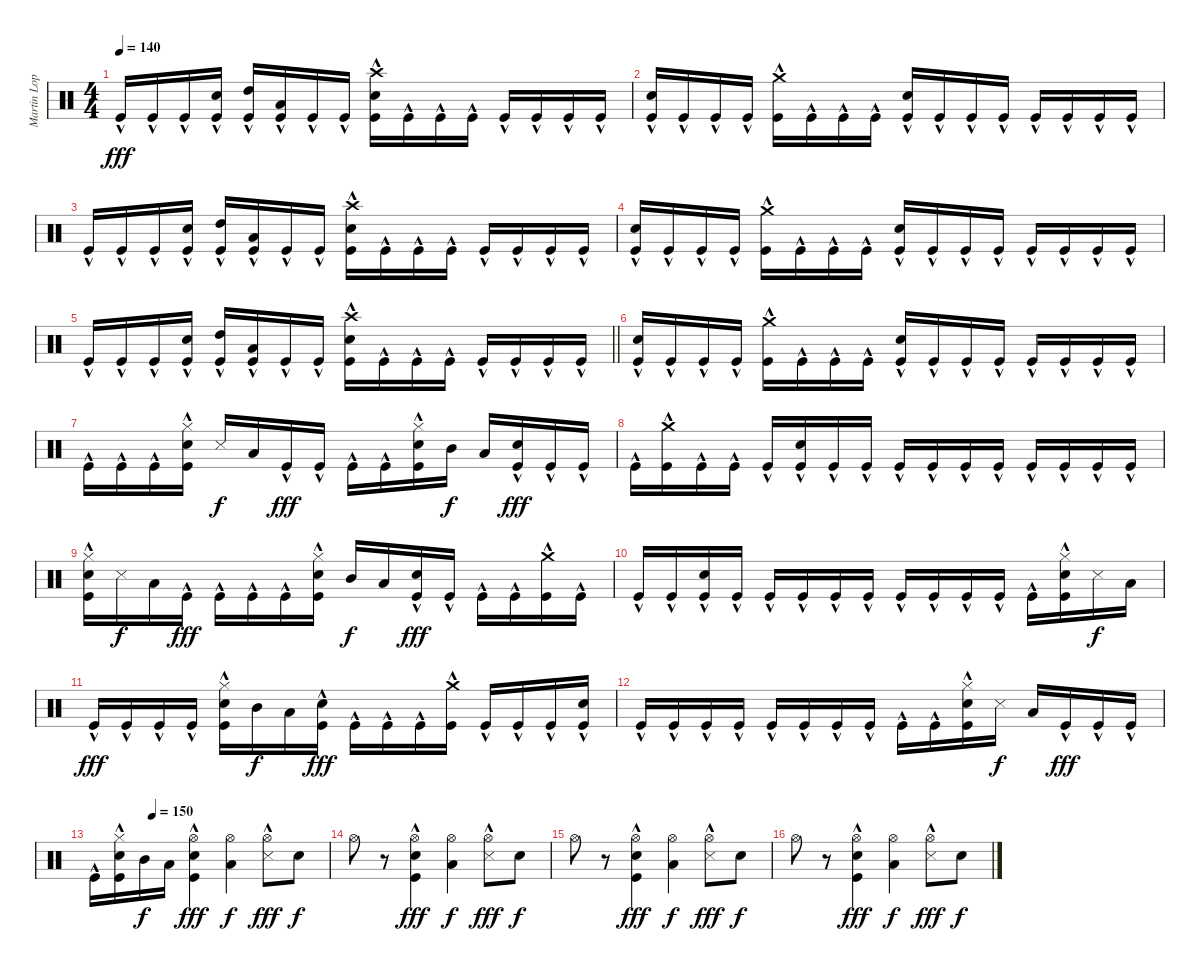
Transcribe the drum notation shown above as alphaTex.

\track ("Martin Lopez" "Martin Lop") {instrument percussion}
\staff {score}
\articulation defaults
\ts (4 4)
\tempo 140
\clef neutral
\ks c "Kick (hit)"{hac}.16{dy fff} "Kick (hit)"{hac}.16 "Kick (hit)"{hac}.16
("Electric Snare (hit)" "Kick (hit)"{hac}).16 ("High Tom (hit)" "Kick (hit)"{hac}).16 ("Low Tom (hit)" "Kick (hit)"{hac}).16 "Kick (hit)"{hac}.16 "Kick (hit)"{hac}.16 ("Crash high (hit)" "Electric Snare (hit)" "Kick (hit)"{hac}).16 "Kick (hit)"{hac}.16 "Kick (hit)"{hac}.16 "Kick (hit)"{hac}.16 "Kick (hit)"{hac}.16 "Kick (hit)"{hac}.16 "Kick (hit)"{hac}.16 "Kick (hit)"{hac}.16 |
("Electric Snare (hit)" "Kick (hit)"{hac}).16 "Kick (hit)"{hac}.16 "Kick (hit)"{hac}.16 "Kick (hit)"{hac}.16 ("Crash medium (hit)" "Kick (hit)"{hac}).16 "Kick (hit)"{hac}.16 "Kick (hit)"{hac}.16 "Kick (hit)"{hac}.16 ("Electric Snare (hit)" "Kick (hit)"{hac}).16 "Kick (hit)"{hac}.16 "Kick (hit)"{hac}.16 "Kick (hit)"{hac}.16 "Kick (hit)"{hac}.16 "Kick (hit)"{hac}.16 "Kick (hit)"{hac}.16 "Kick (hit)"{hac}.16 |
"Kick (hit)"{hac}.16 "Kick (hit)"{hac}.16 "Kick (hit)"{hac}.16 ("Electric Snare (hit)" "Kick (hit)"{hac}).16 ("High Tom (hit)" "Kick (hit)"{hac}).16 ("Low Tom (hit)" "Kick (hit)"{hac}).16 "Kick (hit)"{hac}.16 "Kick (hit)"{hac}.16 ("Crash high (hit)" "Electric Snare (hit)" "Kick (hit)"{hac}).16 "Kick (hit)"{hac}.16 "Kick (hit)"{hac}.16 "Kick (hit)"{hac}.16 "Kick (hit)"{hac}.16 "Kick (hit)"{hac}.16 "Kick (hit)"{hac}.16 "Kick (hit)"{hac}.16 |
("Electric Snare (hit)" "Kick (hit)"{hac}).16 "Kick (hit)"{hac}.16 "Kick (hit)"{hac}.16 "Kick (hit)"{hac}.16 ("Crash medium (hit)" "Kick (hit)"{hac}).16 "Kick (hit)"{hac}.16 "Kick (hit)"{hac}.16 "Kick (hit)"{hac}.16 ("Electric Snare (hit)" "Kick (hit)"{hac}).16 "Kick (hit)"{hac}.16 "Kick (hit)"{hac}.16 "Kick (hit)"{hac}.16 "Kick (hit)"{hac}.16 "Kick (hit)"{hac}.16 "Kick (hit)"{hac}.16 "Kick (hit)"{hac}.16 |
\barLineRight lightlight "Kick (hit)"{hac}.16 "Kick (hit)"{hac}.16 "Kick (hit)"{hac}.16
("Electric Snare (hit)" "Kick (hit)"{hac}).16 ("High Tom (hit)" "Kick (hit)"{hac}).16 ("Low Tom (hit)" "Kick (hit)"{hac}).16 "Kick (hit)"{hac}.16 "Kick (hit)"{hac}.16 ("Crash high (hit)" "Electric Snare (hit)" "Kick (hit)"{hac}).16 "Kick (hit)"{hac}.16 "Kick (hit)"{hac}.16 "Kick (hit)"{hac}.16 "Kick (hit)"{hac}.16 "Kick (hit)"{hac}.16 "Kick (hit)"{hac}.16 "Kick (hit)"{hac}.16 |
\section ("" "")
("Electric Snare (hit)" "Kick (hit)"{hac}).16 "Kick (hit)"{hac}.16 "Kick (hit)"{hac}.16 "Kick (hit)"{hac}.16 ("Crash medium (hit)" "Kick (hit)"{hac}).16 "Kick (hit)"{hac}.16 "Kick (hit)"{hac}.16 "Kick (hit)"{hac}.16 ("Electric Snare (hit)" "Kick (hit)"{hac}).16 "Kick (hit)"{hac}.16 "Kick (hit)"{hac}.16 "Kick (hit)"{hac}.16 "Kick (hit)"{hac}.16 "Kick (hit)"{hac}.16 "Kick (hit)"{hac}.16 "Kick (hit)"{hac}.16 |
"Kick (hit)"{hac}.16 "Kick (hit)"{hac}.16 "Kick (hit)"{hac}.16 ("Hi-Hat (closed)" "Electric Snare (hit)" "Kick (hit)"{hac}).16 "Snare (side stick) 3".16{dy f} "Low Tom (hit)".16 "Kick (hit)"{hac}.16{dy fff} "Kick (hit)"{hac}.16 "Kick (hit)"{hac}.16 "Kick (hit)"{hac}.16 ("Hi-Hat (closed)" "Electric Snare (hit)" "Kick (hit)"{hac}).16 "Mid Tom (hit)".16{dy f} "Low Tom (hit)".16 ("Electric Snare (hit)" "Kick (hit)"{hac}).16{dy fff} "Kick (hit)"{hac}.16 "Kick (hit)"{hac}.16 |
"Kick (hit)"{hac}.16 ("Crash medium (hit)" "Kick (hit)"{hac}).16 "Kick (hit)"{hac}.16 "Kick (hit)"{hac}.16 "Kick (hit)"{hac}.16 ("Electric Snare (hit)" "Kick (hit)"{hac}).16 "Kick (hit)"{hac}.16 "Kick (hit)"{hac}.16 "Kick (hit)"{hac}.16 "Kick (hit)"{hac}.16 "Kick (hit)"{hac}.16 "Kick (hit)"{hac}.16 "Kick (hit)"{hac}.16 "Kick (hit)"{hac}.16 "Kick (hit)"{hac}.16 "Kick (hit)"{hac}.16 |
("Hi-Hat (closed)" "Electric Snare (hit)" "Kick (hit)"{hac}).16 "Snare (side stick) 3".16{dy f} "Low Tom (hit)".16 "Kick (hit)"{hac}.16{dy fff} "Kick (hit)"{hac}.16 "Kick (hit)"{hac}.16 "Kick (hit)"{hac}.16 ("Hi-Hat (closed)" "Electric Snare (hit)" "Kick (hit)"{hac}).16 "Mid Tom (hit)".16{dy f} "Low Tom (hit)".16 ("Electric Snare (hit)" "Kick (hit)"{hac}).16{dy fff} "Kick (hit)"{hac}.16 "Kick (hit)"{hac}.16 "Kick (hit)"{hac}.16 ("Crash medium (hit)" "Kick (hit)"{hac}).16 "Kick (hit)"{hac}.16 |
"Kick (hit)"{hac}.16 "Kick (hit)"{hac}.16 ("Electric Snare (hit)" "Kick (hit)"{hac}).16 "Kick (hit)"{hac}.16 "Kick (hit)"{hac}.16 "Kick (hit)"{hac}.16 "Kick (hit)"{hac}.16 "Kick (hit)"{hac}.16 "Kick (hit)"{hac}.16 "Kick (hit)"{hac}.16 "Kick (hit)"{hac}.16 "Kick (hit)"{hac}.16 "Kick (hit)"{hac}.16 ("Hi-Hat (closed)" "Electric Snare (hit)" "Kick (hit)"{hac}).16 "Snare (side stick) 3".16{dy f} "Low Tom (hit)".16 |
"Kick (hit)"{hac}.16{dy fff} "Kick (hit)"{hac}.16 "Kick (hit)"{hac}.16 "Kick (hit)"{hac}.16 ("Hi-Hat (closed)" "Electric Snare (hit)" "Kick (hit)"{hac}).16 "Mid Tom (hit)".16{dy f} "Low Tom (hit)".16 ("Electric Snare (hit)" "Kick (hit)"{hac}).16{dy fff} "Kick (hit)"{hac}.16 "Kick (hit)"{hac}.16 "Kick (hit)"{hac}.16 ("Crash medium (hit)" "Kick (hit)"{hac}).16 "Kick (hit)"{hac}.16 "Kick (hit)"{hac}.16 "Kick (hit)"{hac}.16 ("Electric Snare (hit)" "Kick (hit)"{hac}).16 |
"Kick (hit)"{hac}.16 "Kick (hit)"{hac}.16 "Kick (hit)"{hac}.16 "Kick (hit)"{hac}.16 "Kick (hit)"{hac}.16 "Kick (hit)"{hac}.16 "Kick (hit)"{hac}.16 "Kick (hit)"{hac}.16 "Kick (hit)"{hac}.16 "Kick (hit)"{hac}.16 ("Hi-Hat (closed)" "Electric Snare (hit)" "Kick (hit)"{hac}).16 "Snare (side stick) 3".16{dy f} "Low Tom (hit)".16 "Kick (hit)"{hac}.16{dy fff} "Kick (hit)"{hac}.16 "Kick (hit)"{hac}.16 |
\tempo (150 0.25)
"Kick (hit)"{hac}.16 ("Hi-Hat (closed)" "Electric Snare (hit)" "Kick (hit)"{hac}).16 "Mid Tom (hit)".16{dy f} "Low Tom (hit)".16 ("Hi-Hat (open)" "Electric Snare (hit)" "Kick (hit)"{hac}).4{dy fff} ("Hi-Hat (open)" "Low Tom (hit)").4{dy f} ("Hi-Hat (open)"{hac} "Snare (side stick) 3"{hac}).8{dy fff} "Electric Snare (hit)".8{dy f} |
"Hi-Hat (open)".8 r.8 ("Hi-Hat (open)" "Electric Snare (hit)" "Kick (hit)"{hac}).4{dy fff} ("Hi-Hat (open)" "Low Tom (hit)").4{dy f} ("Hi-Hat (open)"{hac} "Snare (side stick) 3"{hac}).8{dy fff} "Electric Snare (hit)".8{dy f} |
"Hi-Hat (open)".8 r.8 ("Hi-Hat (open)" "Electric Snare (hit)" "Kick (hit)"{hac}).4{dy fff} ("Hi-Hat (open)" "Low Tom (hit)").4{dy f} ("Hi-Hat (open)"{hac} "Snare (side stick) 3"{hac}).8{dy fff} "Electric Snare (hit)".8{dy f} |
"Hi-Hat (open)".8 r.8 ("Hi-Hat (open)" "Electric Snare (hit)" "Kick (hit)"{hac}).4{dy fff} ("Hi-Hat (open)" "Low Tom (hit)").4{dy f} ("Hi-Hat (open)"{hac} "Snare (side stick) 3"{hac}).8{dy fff} "Electric Snare (hit)".8{dy f}
